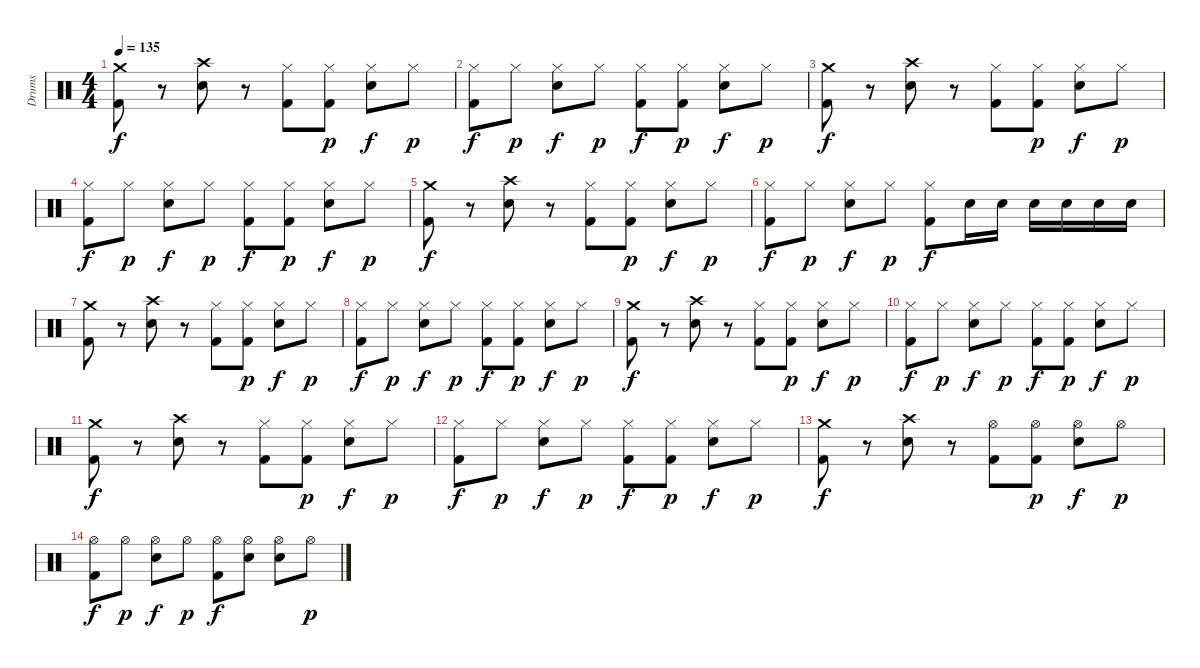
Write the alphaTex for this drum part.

\track ("Drums" "Drums") {instrument percussion}
\staff {score}
\articulation defaults
\ts (4 4)
\tempo 135
\clef neutral
\ks c
("Crash medium (hit)" "Kick (hit) 2").8{dy f} r.8 ("Crash high (hit)" "Snare (hit) 2").8 r.8 ("Hi-Hat (closed)" "Kick (hit) 2").8 ("Hi-Hat (closed)" "Kick (hit) 2").8{dy p} ("Hi-Hat (closed)" "Snare (hit) 2").8{dy f} "Hi-Hat (closed)".8{dy p} |
("Hi-Hat (closed)" "Kick (hit) 2").8{dy f} "Hi-Hat (closed)".8{dy p} ("Hi-Hat (closed)" "Snare (hit) 2").8{dy f} "Hi-Hat (closed)".8{dy p} ("Hi-Hat (closed)" "Kick (hit) 2").8{dy f} ("Hi-Hat (closed)" "Kick (hit) 2").8{dy p} ("Hi-Hat (closed)" "Snare (hit) 2").8{dy f} "Hi-Hat (closed)".8{dy p} |
("Crash medium (hit)" "Kick (hit) 2").8{dy f} r.8 ("Crash high (hit)" "Snare (hit) 2").8 r.8 ("Hi-Hat (closed)" "Kick (hit) 2").8 ("Hi-Hat (closed)" "Kick (hit) 2").8{dy p} ("Hi-Hat (closed)" "Snare (hit) 2").8{dy f} "Hi-Hat (closed)".8{dy p} |
("Hi-Hat (closed)" "Kick (hit) 2").8{dy f} "Hi-Hat (closed)".8{dy p} ("Hi-Hat (closed)" "Snare (hit) 2").8{dy f} "Hi-Hat (closed)".8{dy p} ("Hi-Hat (closed)" "Kick (hit) 2").8{dy f} ("Hi-Hat (closed)" "Kick (hit) 2").8{dy p} ("Hi-Hat (closed)" "Snare (hit) 2").8{dy f} "Hi-Hat (closed)".8{dy p} |
("Crash medium (hit)" "Kick (hit) 2").8{dy f} r.8 ("Crash high (hit)" "Snare (hit) 2").8 r.8 ("Hi-Hat (closed)" "Kick (hit) 2").8 ("Hi-Hat (closed)" "Kick (hit) 2").8{dy p} ("Hi-Hat (closed)" "Snare (hit) 2").8{dy f} "Hi-Hat (closed)".8{dy p} |
("Hi-Hat (closed)" "Kick (hit) 2").8{dy f} "Hi-Hat (closed)".8{dy p} ("Hi-Hat (closed)" "Snare (hit) 2").8{dy f} "Hi-Hat (closed)".8{dy p} ("Hi-Hat (closed)" "Kick (hit) 2").8{dy f} "Snare (hit) 2".16 "Snare (hit) 2".16 "Snare (hit) 2".16 "Snare (hit) 2".16 "Snare (hit) 2".16 "Snare (hit) 2".16 |
\section ("" "")
("Crash medium (hit)" "Kick (hit) 2").8 r.8 ("Crash high (hit)" "Snare (hit) 2").8 r.8 ("Hi-Hat (closed)" "Kick (hit) 2").8 ("Hi-Hat (closed)" "Kick (hit) 2").8{dy p} ("Hi-Hat (closed)" "Snare (hit) 2").8{dy f} "Hi-Hat (closed)".8{dy p} |
("Hi-Hat (closed)" "Kick (hit) 2").8{dy f} "Hi-Hat (closed)".8{dy p} ("Hi-Hat (closed)" "Snare (hit) 2").8{dy f} "Hi-Hat (closed)".8{dy p} ("Hi-Hat (closed)" "Kick (hit) 2").8{dy f} ("Hi-Hat (closed)" "Kick (hit) 2").8{dy p} ("Hi-Hat (closed)" "Snare (hit) 2").8{dy f} "Hi-Hat (closed)".8{dy p} |
("Crash medium (hit)" "Kick (hit) 2").8{dy f} r.8 ("Crash high (hit)" "Snare (hit) 2").8 r.8 ("Hi-Hat (closed)" "Kick (hit) 2").8 ("Hi-Hat (closed)" "Kick (hit) 2").8{dy p} ("Hi-Hat (closed)" "Snare (hit) 2").8{dy f} "Hi-Hat (closed)".8{dy p} |
("Hi-Hat (closed)" "Kick (hit) 2").8{dy f} "Hi-Hat (closed)".8{dy p} ("Hi-Hat (closed)" "Snare (hit) 2").8{dy f} "Hi-Hat (closed)".8{dy p} ("Hi-Hat (closed)" "Kick (hit) 2").8{dy f} ("Hi-Hat (closed)" "Kick (hit) 2").8{dy p} ("Hi-Hat (closed)" "Snare (hit) 2").8{dy f} "Hi-Hat (closed)".8{dy p} |
("Crash medium (hit)" "Kick (hit) 2").8{dy f} r.8 ("Crash high (hit)" "Snare (hit) 2").8 r.8 ("Hi-Hat (closed)" "Kick (hit) 2").8 ("Hi-Hat (closed)" "Kick (hit) 2").8{dy p} ("Hi-Hat (closed)" "Snare (hit) 2").8{dy f} "Hi-Hat (closed)".8{dy p} |
("Hi-Hat (closed)" "Kick (hit) 2").8{dy f} "Hi-Hat (closed)".8{dy p} ("Hi-Hat (closed)" "Snare (hit) 2").8{dy f} "Hi-Hat (closed)".8{dy p} ("Hi-Hat (closed)" "Kick (hit) 2").8{dy f} ("Hi-Hat (closed)" "Kick (hit) 2").8{dy p} ("Hi-Hat (closed)" "Snare (hit) 2").8{dy f} "Hi-Hat (closed)".8{dy p} |
("Crash medium (hit)" "Kick (hit) 2").8{dy f} r.8 ("Crash high (hit)" "Snare (hit) 2").8 r.8 ("Hi-Hat (open)" "Kick (hit) 2").8 ("Hi-Hat (open)" "Kick (hit) 2").8{dy p} ("Hi-Hat (open)" "Snare (hit) 2").8{dy f} "Hi-Hat (open)".8{dy p} |
("Hi-Hat (open)" "Kick (hit) 2").8{dy f} "Hi-Hat (open)".8{dy p} ("Hi-Hat (open)" "Snare (hit) 2").8{dy f} "Hi-Hat (open)".8{dy p} ("Hi-Hat (open)" "Kick (hit) 2").8{dy f} ("Hi-Hat (open)" "Snare (hit) 2").8 ("Hi-Hat (open)" "Snare (hit) 2").8 "Hi-Hat (open)".8{dy p}
